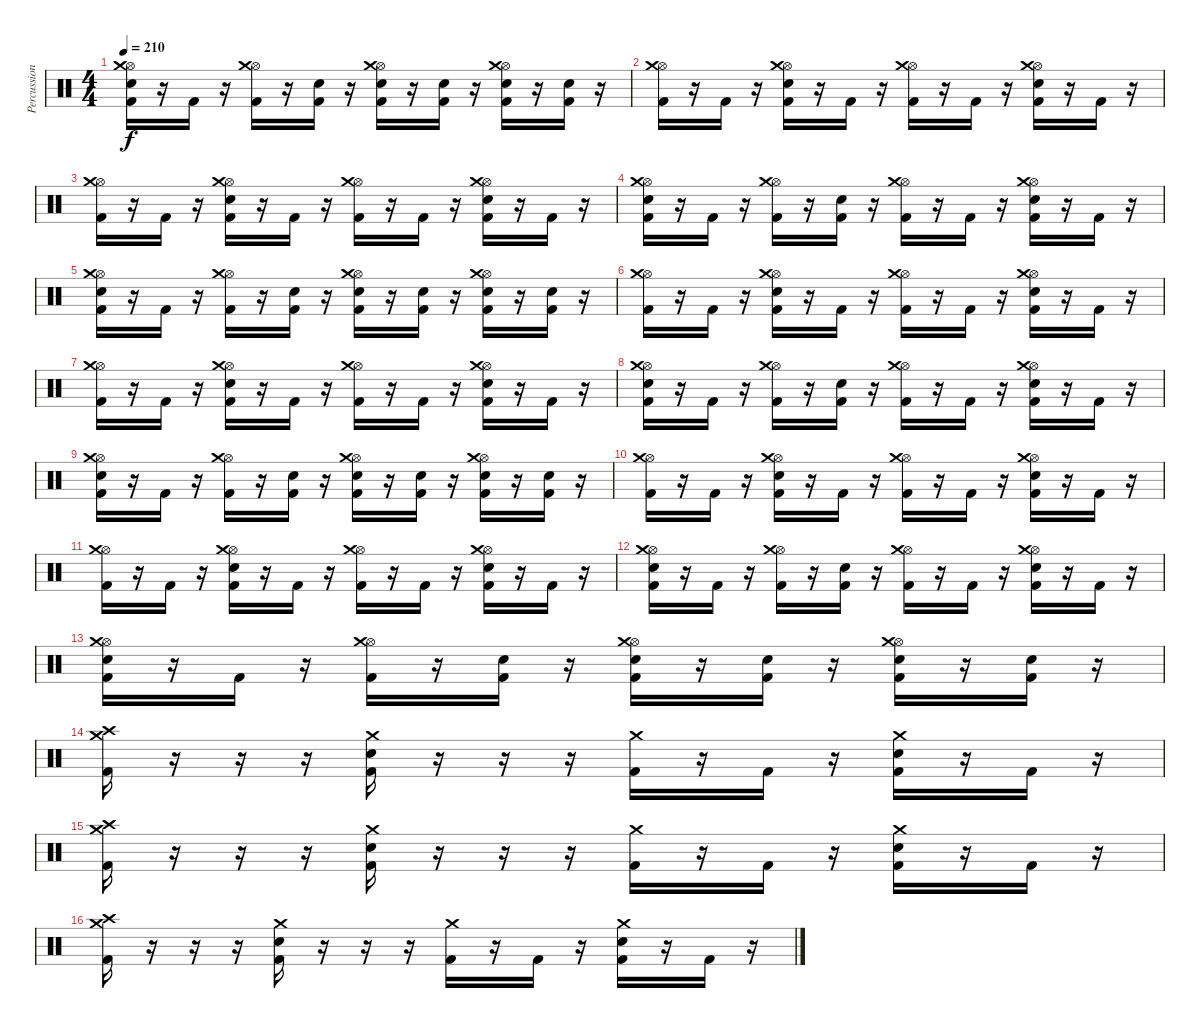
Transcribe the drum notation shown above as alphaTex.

\track ("Percussion" "Percussion") {instrument percussion}
\staff {score}
\articulation defaults
\ts (4 4)
\tempo 210
\clef neutral
\ks c
("Kick (hit) 2" "Electric Snare (hit)" "Hi-Hat (open)" "Crash medium (hit)").16{dy f} r.16 "Kick (hit) 2".16 r.16 ("Kick (hit) 2" "Hi-Hat (open)" "Crash medium (hit)").16 r.16 ("Kick (hit) 2" "Electric Snare (hit)").16 r.16 ("Kick (hit) 2" "Electric Snare (hit)" "Hi-Hat (open)" "Crash medium (hit)").16 r.16 ("Kick (hit) 2" "Electric Snare (hit)").16 r.16 ("Kick (hit) 2" "Electric Snare (hit)" "Hi-Hat (open)" "Crash medium (hit)").16 r.16 ("Kick (hit) 2" "Electric Snare (hit)").16 r.16 |
("Kick (hit) 2" "Hi-Hat (open)" "Crash medium (hit)").16 r.16 "Kick (hit) 2".16 r.16 ("Kick (hit) 2" "Electric Snare (hit)" "Hi-Hat (open)" "Crash medium (hit)").16 r.16 "Kick (hit) 2".16 r.16 ("Kick (hit) 2" "Hi-Hat (open)" "Crash medium (hit)").16 r.16 "Kick (hit) 2".16 r.16 ("Kick (hit) 2" "Electric Snare (hit)" "Hi-Hat (open)" "Crash medium (hit)").16 r.16 "Kick (hit) 2".16 r.16 |
("Kick (hit) 2" "Hi-Hat (open)" "Crash medium (hit)").16 r.16 "Kick (hit) 2".16 r.16 ("Kick (hit) 2" "Electric Snare (hit)" "Hi-Hat (open)" "Crash medium (hit)").16 r.16 "Kick (hit) 2".16 r.16 ("Kick (hit) 2" "Hi-Hat (open)" "Crash medium (hit)").16 r.16 "Kick (hit) 2".16 r.16 ("Kick (hit) 2" "Electric Snare (hit)" "Hi-Hat (open)" "Crash medium (hit)").16 r.16 "Kick (hit) 2".16 r.16 |
("Kick (hit) 2" "Electric Snare (hit)" "Hi-Hat (open)" "Crash medium (hit)").16 r.16 "Kick (hit) 2".16 r.16 ("Kick (hit) 2" "Hi-Hat (open)" "Crash medium (hit)").16 r.16 ("Kick (hit) 2" "Electric Snare (hit)").16 r.16 ("Kick (hit) 2" "Hi-Hat (open)" "Crash medium (hit)").16 r.16 "Kick (hit) 2".16 r.16 ("Kick (hit) 2" "Electric Snare (hit)" "Hi-Hat (open)" "Crash medium (hit)").16 r.16 "Kick (hit) 2".16 r.16 |
("Kick (hit) 2" "Electric Snare (hit)" "Hi-Hat (open)" "Crash medium (hit)").16 r.16 "Kick (hit) 2".16 r.16 ("Kick (hit) 2" "Hi-Hat (open)" "Crash medium (hit)").16 r.16 ("Kick (hit) 2" "Electric Snare (hit)").16 r.16 ("Kick (hit) 2" "Electric Snare (hit)" "Hi-Hat (open)" "Crash medium (hit)").16 r.16 ("Kick (hit) 2" "Electric Snare (hit)").16 r.16 ("Kick (hit) 2" "Electric Snare (hit)" "Hi-Hat (open)" "Crash medium (hit)").16 r.16 ("Kick (hit) 2" "Electric Snare (hit)").16 r.16 |
("Kick (hit) 2" "Hi-Hat (open)" "Crash medium (hit)").16 r.16 "Kick (hit) 2".16 r.16 ("Kick (hit) 2" "Electric Snare (hit)" "Hi-Hat (open)" "Crash medium (hit)").16 r.16 "Kick (hit) 2".16 r.16 ("Kick (hit) 2" "Hi-Hat (open)" "Crash medium (hit)").16 r.16 "Kick (hit) 2".16 r.16 ("Kick (hit) 2" "Electric Snare (hit)" "Hi-Hat (open)" "Crash medium (hit)").16 r.16 "Kick (hit) 2".16 r.16 |
("Kick (hit) 2" "Hi-Hat (open)" "Crash medium (hit)").16 r.16 "Kick (hit) 2".16 r.16 ("Kick (hit) 2" "Electric Snare (hit)" "Hi-Hat (open)" "Crash medium (hit)").16 r.16 "Kick (hit) 2".16 r.16 ("Kick (hit) 2" "Hi-Hat (open)" "Crash medium (hit)").16 r.16 "Kick (hit) 2".16 r.16 ("Kick (hit) 2" "Electric Snare (hit)" "Hi-Hat (open)" "Crash medium (hit)").16 r.16 "Kick (hit) 2".16 r.16 |
("Kick (hit) 2" "Electric Snare (hit)" "Hi-Hat (open)" "Crash medium (hit)").16 r.16 "Kick (hit) 2".16 r.16 ("Kick (hit) 2" "Hi-Hat (open)" "Crash medium (hit)").16 r.16 ("Kick (hit) 2" "Electric Snare (hit)").16 r.16 ("Kick (hit) 2" "Hi-Hat (open)" "Crash medium (hit)").16 r.16 "Kick (hit) 2".16 r.16 ("Kick (hit) 2" "Electric Snare (hit)" "Hi-Hat (open)" "Crash medium (hit)").16 r.16 "Kick (hit) 2".16 r.16 |
("Kick (hit) 2" "Electric Snare (hit)" "Hi-Hat (open)" "Crash medium (hit)").16 r.16 "Kick (hit) 2".16 r.16 ("Kick (hit) 2" "Hi-Hat (open)" "Crash medium (hit)").16 r.16 ("Kick (hit) 2" "Electric Snare (hit)").16 r.16 ("Kick (hit) 2" "Electric Snare (hit)" "Hi-Hat (open)" "Crash medium (hit)").16 r.16 ("Kick (hit) 2" "Electric Snare (hit)").16 r.16 ("Kick (hit) 2" "Electric Snare (hit)" "Hi-Hat (open)" "Crash medium (hit)").16 r.16 ("Kick (hit) 2" "Electric Snare (hit)").16 r.16 |
("Kick (hit) 2" "Hi-Hat (open)" "Crash medium (hit)").16 r.16 "Kick (hit) 2".16 r.16 ("Kick (hit) 2" "Electric Snare (hit)" "Hi-Hat (open)" "Crash medium (hit)").16 r.16 "Kick (hit) 2".16 r.16 ("Kick (hit) 2" "Hi-Hat (open)" "Crash medium (hit)").16 r.16 "Kick (hit) 2".16 r.16 ("Kick (hit) 2" "Electric Snare (hit)" "Hi-Hat (open)" "Crash medium (hit)").16 r.16 "Kick (hit) 2".16 r.16 |
("Kick (hit) 2" "Hi-Hat (open)" "Crash medium (hit)").16 r.16 "Kick (hit) 2".16 r.16 ("Kick (hit) 2" "Electric Snare (hit)" "Hi-Hat (open)" "Crash medium (hit)").16 r.16 "Kick (hit) 2".16 r.16 ("Kick (hit) 2" "Hi-Hat (open)" "Crash medium (hit)").16 r.16 "Kick (hit) 2".16 r.16 ("Kick (hit) 2" "Electric Snare (hit)" "Hi-Hat (open)" "Crash medium (hit)").16 r.16 "Kick (hit) 2".16 r.16 |
("Kick (hit) 2" "Electric Snare (hit)" "Hi-Hat (open)" "Crash medium (hit)").16 r.16 "Kick (hit) 2".16 r.16 ("Kick (hit) 2" "Hi-Hat (open)" "Crash medium (hit)").16 r.16 ("Kick (hit) 2" "Electric Snare (hit)").16 r.16 ("Kick (hit) 2" "Hi-Hat (open)" "Crash medium (hit)").16 r.16 "Kick (hit) 2".16 r.16 ("Kick (hit) 2" "Electric Snare (hit)" "Hi-Hat (open)" "Crash medium (hit)").16 r.16 "Kick (hit) 2".16 r.16 |
("Kick (hit) 2" "Electric Snare (hit)" "Hi-Hat (open)" "Crash medium (hit)").16 r.16 "Kick (hit) 2".16 r.16 ("Kick (hit) 2" "Hi-Hat (open)" "Crash medium (hit)").16 r.16 ("Kick (hit) 2" "Electric Snare (hit)").16 r.16 ("Kick (hit) 2" "Electric Snare (hit)" "Hi-Hat (open)" "Crash medium (hit)").16 r.16 ("Kick (hit) 2" "Electric Snare (hit)").16 r.16 ("Kick (hit) 2" "Electric Snare (hit)" "Hi-Hat (open)" "Crash medium (hit)").16 r.16 ("Kick (hit) 2" "Electric Snare (hit)").16 r.16 |
("Kick (hit) 2" "Crash high (hit)" "Crash medium (hit)").16 r.16 r.16 r.16 ("Kick (hit) 2" "Electric Snare (hit)" "Crash medium (hit)").16 r.16 r.16 r.16 ("Kick (hit) 2" "Crash medium (hit)").16 r.16 "Kick (hit) 2".16 r.16 ("Kick (hit) 2" "Electric Snare (hit)" "Crash medium (hit)").16 r.16 "Kick (hit) 2".16 r.16 |
("Kick (hit) 2" "Crash high (hit)" "Crash medium (hit)").16 r.16 r.16 r.16 ("Kick (hit) 2" "Electric Snare (hit)" "Crash medium (hit)").16 r.16 r.16 r.16 ("Kick (hit) 2" "Crash medium (hit)").16 r.16 "Kick (hit) 2".16 r.16 ("Kick (hit) 2" "Electric Snare (hit)" "Crash medium (hit)").16 r.16 "Kick (hit) 2".16 r.16 |
("Kick (hit) 2" "Crash high (hit)" "Crash medium (hit)").16 r.16 r.16 r.16 ("Kick (hit) 2" "Electric Snare (hit)" "Crash medium (hit)").16 r.16 r.16 r.16 ("Kick (hit) 2" "Crash medium (hit)").16 r.16 "Kick (hit) 2".16 r.16 ("Kick (hit) 2" "Electric Snare (hit)" "Crash medium (hit)").16 r.16 "Kick (hit) 2".16 r.16
